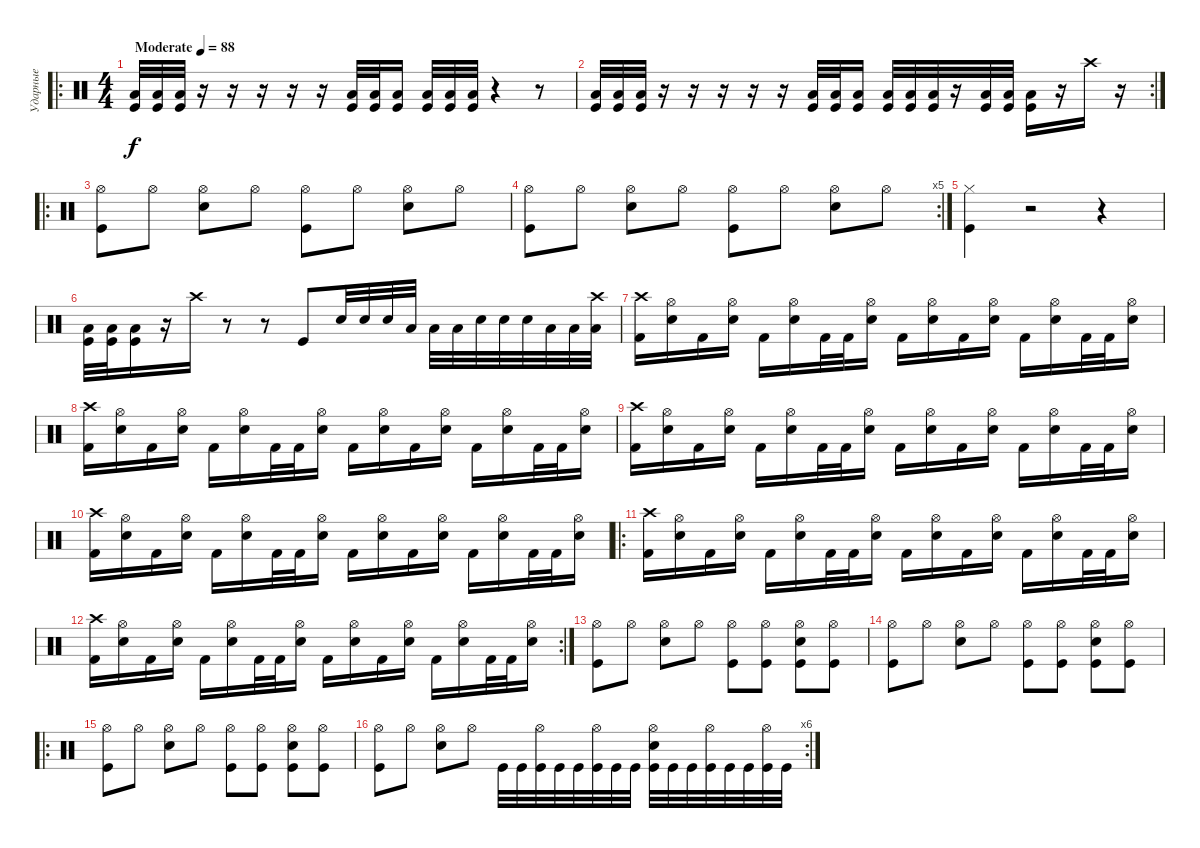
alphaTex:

\track ("Ударные" "Ударные") {instrument percussion}
\staff {score}
\articulation defaults
\ro
\ts (4 4)
\tempo (88 "Moderate")
\clef neutral
\ks c
("Kick (hit)" "Low Tom (hit)").32{dy f} ("Kick (hit)" "Low Tom (hit)").32 ("Kick (hit)" "Low Tom (hit)").32 r.16 r.16 r.16 r.16 r.16 ("Kick (hit)" "Low Tom (hit)").32 ("Kick (hit)" "Low Tom (hit)").32 ("Kick (hit)" "Low Tom (hit)").16 ("Kick (hit)" "Low Tom (hit)").32 ("Kick (hit)" "Low Tom (hit)").32 ("Kick (hit)" "Low Tom (hit)").32 r.4 r.8 |
\rc 2
("Kick (hit)" "Low Tom (hit)").32 ("Kick (hit)" "Low Tom (hit)").32 ("Kick (hit)" "Low Tom (hit)").32 r.16 r.16 r.16 r.16 r.16 ("Kick (hit)" "Low Tom (hit)").32 ("Kick (hit)" "Low Tom (hit)").32 ("Kick (hit)" "Low Tom (hit)").16 ("Kick (hit)" "Low Tom (hit)").32 ("Kick (hit)" "Low Tom (hit)").32 ("Kick (hit)" "Low Tom (hit)").32 r.16 ("Kick (hit)" "Low Tom (hit)").32 ("Kick (hit)" "Low Tom (hit)").32 ("Kick (hit)" "Low Tom (hit)").16 r.16 "Crash high (hit)".16 r.16 |
\ro
("Hi-Hat (open)" "Kick (hit)").8 "Hi-Hat (open)".8 ("Hi-Hat (open)" "Snare (hit) 2").8 "Hi-Hat (open)".8 ("Hi-Hat (open)" "Kick (hit)").8 "Hi-Hat (open)".8 ("Hi-Hat (open)" "Snare (hit) 2").8 "Hi-Hat (open)".8 |
\rc 5
("Hi-Hat (open)" "Kick (hit)").8 "Hi-Hat (open)".8 ("Hi-Hat (open)" "Snare (hit) 2").8 "Hi-Hat (open)".8 ("Hi-Hat (open)" "Kick (hit)").8 "Hi-Hat (open)".8 ("Hi-Hat (open)" "Snare (hit) 2").8 "Hi-Hat (open)".8 |
("Kick (hit)" "Hi-Hat (closed)").4 r.2 r.4 |
("Kick (hit)" "Low Tom (hit)").32 ("Kick (hit)" "Low Tom (hit)").32 ("Kick (hit)" "Low Tom (hit)").16 r.16 "Crash high (hit)".16 r.8 r.8 "Kick (hit)".8 "Snare (hit) 2".32 "Snare (hit) 2".32 "Snare (hit) 2".32 "Low Tom (hit)".32 "Low Tom (hit)".32 "Low Tom (hit)".32 "Snare (hit) 2".32 "Snare (hit) 2".32 "Snare (hit) 2".32 "Low Tom (hit)".32 "Low Tom (hit)".32 ("Low Tom (hit)" "Crash high (hit)").32 |
("Crash high (hit)" "Kick (hit) 2").16 ("Electric Snare (hit)" "Hi-Hat (open)").16 "Kick (hit) 2".16 ("Electric Snare (hit)" "Hi-Hat (open)").16 "Kick (hit) 2".16 ("Electric Snare (hit)" "Hi-Hat (open)").16 "Kick (hit) 2".32 "Kick (hit) 2".32 ("Electric Snare (hit)" "Hi-Hat (open)").16 "Kick (hit) 2".16 ("Electric Snare (hit)" "Hi-Hat (open)").16 "Kick (hit) 2".16 ("Electric Snare (hit)" "Hi-Hat (open)").16 "Kick (hit) 2".16 ("Electric Snare (hit)" "Hi-Hat (open)").16 "Kick (hit) 2".32 "Kick (hit) 2".32 ("Electric Snare (hit)" "Hi-Hat (open)").16 |
("Crash high (hit)" "Kick (hit) 2").16 ("Electric Snare (hit)" "Hi-Hat (open)").16 "Kick (hit) 2".16 ("Electric Snare (hit)" "Hi-Hat (open)").16 "Kick (hit) 2".16 ("Electric Snare (hit)" "Hi-Hat (open)").16 "Kick (hit) 2".32 "Kick (hit) 2".32 ("Electric Snare (hit)" "Hi-Hat (open)").16 "Kick (hit) 2".16 ("Electric Snare (hit)" "Hi-Hat (open)").16 "Kick (hit) 2".16 ("Electric Snare (hit)" "Hi-Hat (open)").16 "Kick (hit) 2".16 ("Electric Snare (hit)" "Hi-Hat (open)").16 "Kick (hit) 2".32 "Kick (hit) 2".32 ("Electric Snare (hit)" "Hi-Hat (open)").16 |
("Crash high (hit)" "Kick (hit) 2").16 ("Electric Snare (hit)" "Hi-Hat (open)").16 "Kick (hit) 2".16 ("Electric Snare (hit)" "Hi-Hat (open)").16 "Kick (hit) 2".16 ("Electric Snare (hit)" "Hi-Hat (open)").16 "Kick (hit) 2".32 "Kick (hit) 2".32 ("Electric Snare (hit)" "Hi-Hat (open)").16 "Kick (hit) 2".16 ("Electric Snare (hit)" "Hi-Hat (open)").16 "Kick (hit) 2".16 ("Electric Snare (hit)" "Hi-Hat (open)").16 "Kick (hit) 2".16 ("Electric Snare (hit)" "Hi-Hat (open)").16 "Kick (hit) 2".32 "Kick (hit) 2".32 ("Electric Snare (hit)" "Hi-Hat (open)").16 |
("Crash high (hit)" "Kick (hit) 2").16 ("Electric Snare (hit)" "Hi-Hat (open)").16 "Kick (hit) 2".16 ("Electric Snare (hit)" "Hi-Hat (open)").16 "Kick (hit) 2".16 ("Electric Snare (hit)" "Hi-Hat (open)").16 "Kick (hit) 2".32 "Kick (hit) 2".32 ("Electric Snare (hit)" "Hi-Hat (open)").16 "Kick (hit) 2".16 ("Electric Snare (hit)" "Hi-Hat (open)").16 "Kick (hit) 2".16 ("Electric Snare (hit)" "Hi-Hat (open)").16 "Kick (hit) 2".16 ("Electric Snare (hit)" "Hi-Hat (open)").16 "Kick (hit) 2".32 "Kick (hit) 2".32 ("Electric Snare (hit)" "Hi-Hat (open)").16 |
\ro
("Crash high (hit)" "Kick (hit) 2").16 ("Electric Snare (hit)" "Hi-Hat (open)").16 "Kick (hit) 2".16 ("Electric Snare (hit)" "Hi-Hat (open)").16 "Kick (hit) 2".16 ("Electric Snare (hit)" "Hi-Hat (open)").16 "Kick (hit) 2".32 "Kick (hit) 2".32 ("Electric Snare (hit)" "Hi-Hat (open)").16 "Kick (hit) 2".16 ("Electric Snare (hit)" "Hi-Hat (open)").16 "Kick (hit) 2".16 ("Electric Snare (hit)" "Hi-Hat (open)").16 "Kick (hit) 2".16 ("Electric Snare (hit)" "Hi-Hat (open)").16 "Kick (hit) 2".32 "Kick (hit) 2".32 ("Electric Snare (hit)" "Hi-Hat (open)").16 |
\rc 2
("Crash high (hit)" "Kick (hit) 2").16 ("Electric Snare (hit)" "Hi-Hat (open)").16 "Kick (hit) 2".16 ("Electric Snare (hit)" "Hi-Hat (open)").16 "Kick (hit) 2".16 ("Electric Snare (hit)" "Hi-Hat (open)").16 "Kick (hit) 2".32 "Kick (hit) 2".32 ("Electric Snare (hit)" "Hi-Hat (open)").16 "Kick (hit) 2".16 ("Electric Snare (hit)" "Hi-Hat (open)").16 "Kick (hit) 2".16 ("Electric Snare (hit)" "Hi-Hat (open)").16 "Kick (hit) 2".16 ("Electric Snare (hit)" "Hi-Hat (open)").16 "Kick (hit) 2".32 "Kick (hit) 2".32 ("Electric Snare (hit)" "Hi-Hat (open)").16 |
("Hi-Hat (open)" "Kick (hit)").8 "Hi-Hat (open)".8 ("Hi-Hat (open)" "Snare (hit) 2").8 "Hi-Hat (open)".8 ("Hi-Hat (open)" "Kick (hit)").8 ("Hi-Hat (open)" "Kick (hit)").8 ("Hi-Hat (open)" "Snare (hit) 2" "Kick (hit)").8 ("Hi-Hat (open)" "Kick (hit)").8 |
("Hi-Hat (open)" "Kick (hit)").8 "Hi-Hat (open)".8 ("Hi-Hat (open)" "Snare (hit) 2").8 "Hi-Hat (open)".8 ("Hi-Hat (open)" "Kick (hit)").8 ("Hi-Hat (open)" "Kick (hit)").8 ("Hi-Hat (open)" "Snare (hit) 2" "Kick (hit)").8 ("Hi-Hat (open)" "Kick (hit)").8 |
\ro
("Hi-Hat (open)" "Kick (hit)").8 "Hi-Hat (open)".8 ("Hi-Hat (open)" "Snare (hit) 2").8 "Hi-Hat (open)".8 ("Hi-Hat (open)" "Kick (hit)").8 ("Hi-Hat (open)" "Kick (hit)").8 ("Hi-Hat (open)" "Snare (hit) 2" "Kick (hit)").8 ("Hi-Hat (open)" "Kick (hit)").8 |
\rc 6
("Hi-Hat (open)" "Kick (hit)").8 "Hi-Hat (open)".8 ("Hi-Hat (open)" "Snare (hit) 2").8 "Hi-Hat (open)".8 "Kick (hit)".32 "Kick (hit)".32 ("Hi-Hat (open)" "Kick (hit)").32 "Kick (hit)".32 "Kick (hit)".32 ("Hi-Hat (open)" "Kick (hit)").32 "Kick (hit)".32 "Kick (hit)".32 ("Hi-Hat (open)" "Snare (hit) 2" "Kick (hit)").32 "Kick (hit)".32 "Kick (hit)".32 ("Hi-Hat (open)" "Kick (hit)").32 "Kick (hit)".32 "Kick (hit)".32 ("Hi-Hat (open)" "Kick (hit)").32 "Kick (hit)".32
